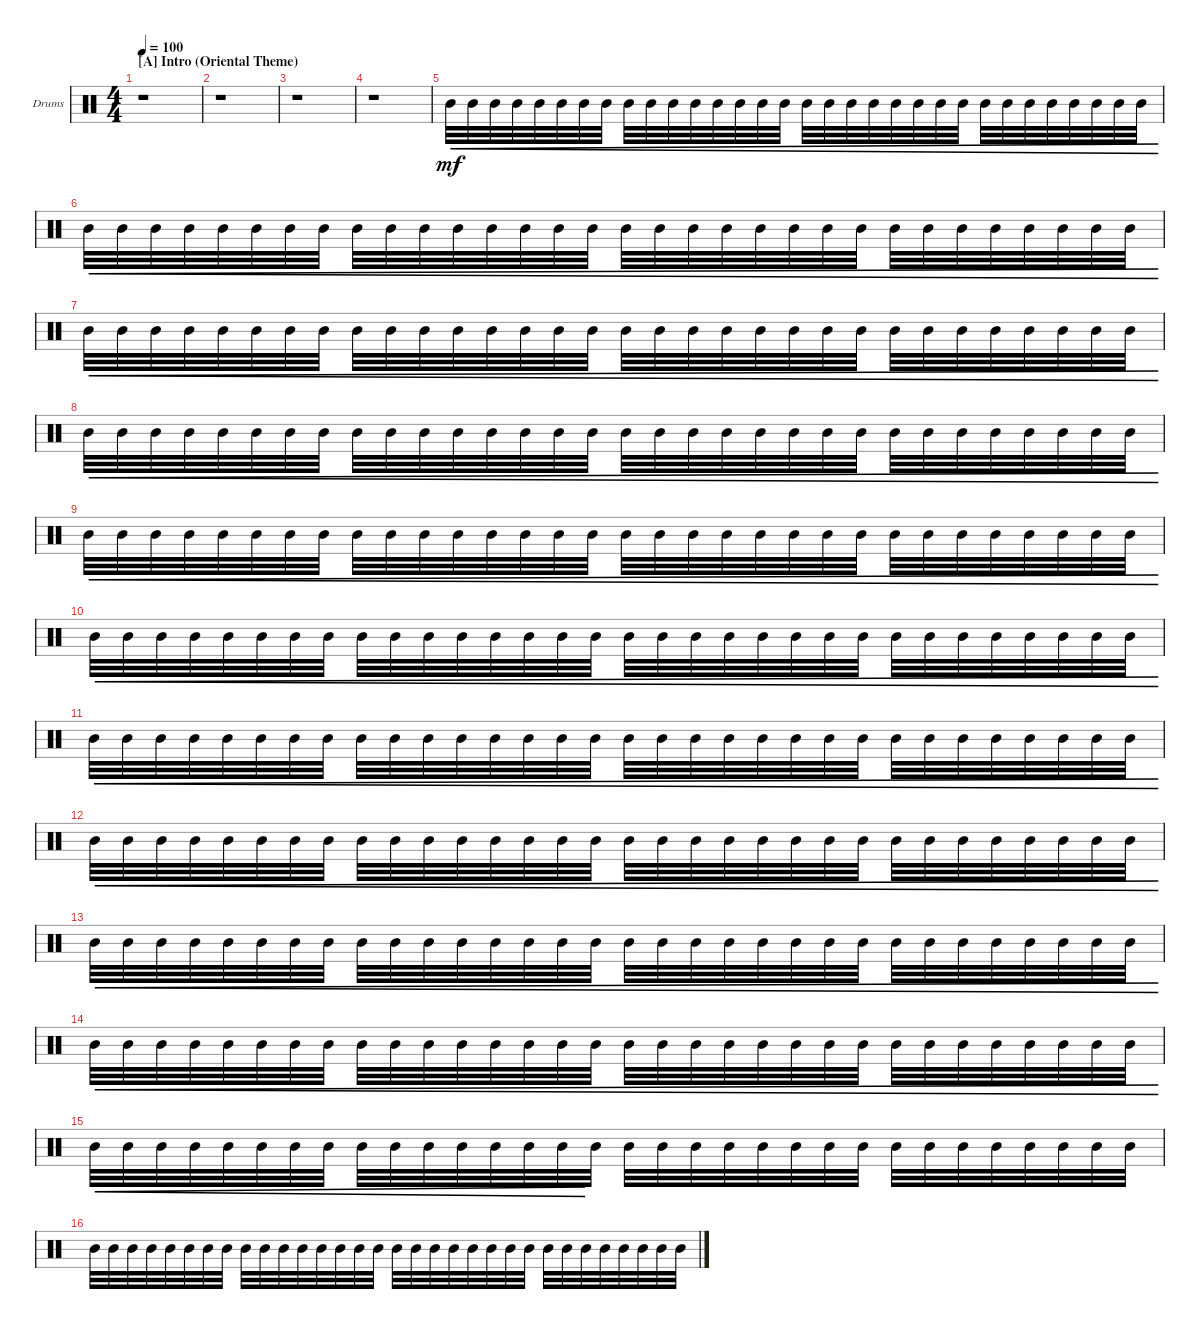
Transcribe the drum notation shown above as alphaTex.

\defaultSystemsLayout 4
\bracketExtendMode groupsimilarinstruments
\firstSystemTrackNameOrientation horizontal
\otherSystemsTrackNameOrientation horizontal
\track ("Drums" "Drums") {instrument percussion}
\staff {score}
\articulation defaults
\ts (4 4)
\section ("A" "Intro (Oriental Theme)")
\tempo 100
\clef neutral
\ks c
r.1{dy mf} |
r.1 |
r.1 |
r.1 |
"Mid Tom (hit)".32{cre} "Mid Tom (hit)".32{cre beam merge} "Mid Tom (hit)".32{cre} "Mid Tom (hit)".32{cre beam merge} "Mid Tom (hit)".32{cre} "Mid Tom (hit)".32{cre beam merge} "Mid Tom (hit)".32{cre} "Mid Tom (hit)".32{cre} "Mid Tom (hit)".32{cre} "Mid Tom (hit)".32{cre beam merge} "Mid Tom (hit)".32{cre} "Mid Tom (hit)".32{cre beam merge} "Mid Tom (hit)".32{cre} "Mid Tom (hit)".32{cre beam merge} "Mid Tom (hit)".32{cre} "Mid Tom (hit)".32{cre} "Mid Tom (hit)".32{cre} "Mid Tom (hit)".32{cre beam merge} "Mid Tom (hit)".32{cre} "Mid Tom (hit)".32{cre beam merge} "Mid Tom (hit)".32{cre} "Mid Tom (hit)".32{cre beam merge} "Mid Tom (hit)".32{cre} "Mid Tom (hit)".32{cre} "Mid Tom (hit)".32{cre} "Mid Tom (hit)".32{cre beam merge} "Mid Tom (hit)".32{cre} "Mid Tom (hit)".32{cre beam merge} "Mid Tom (hit)".32{cre} "Mid Tom (hit)".32{cre beam merge} "Mid Tom (hit)".32{cre} "Mid Tom (hit)".32{cre} |
"Mid Tom (hit)".32{cre} "Mid Tom (hit)".32{cre beam merge} "Mid Tom (hit)".32{cre} "Mid Tom (hit)".32{cre beam merge} "Mid Tom (hit)".32{cre} "Mid Tom (hit)".32{cre beam merge} "Mid Tom (hit)".32{cre} "Mid Tom (hit)".32{cre} "Mid Tom (hit)".32{cre} "Mid Tom (hit)".32{cre beam merge} "Mid Tom (hit)".32{cre} "Mid Tom (hit)".32{cre beam merge} "Mid Tom (hit)".32{cre} "Mid Tom (hit)".32{cre beam merge} "Mid Tom (hit)".32{cre} "Mid Tom (hit)".32{cre} "Mid Tom (hit)".32{cre} "Mid Tom (hit)".32{cre beam merge} "Mid Tom (hit)".32{cre} "Mid Tom (hit)".32{cre beam merge} "Mid Tom (hit)".32{cre} "Mid Tom (hit)".32{cre beam merge} "Mid Tom (hit)".32{cre} "Mid Tom (hit)".32{cre} "Mid Tom (hit)".32{cre} "Mid Tom (hit)".32{cre beam merge} "Mid Tom (hit)".32{cre} "Mid Tom (hit)".32{cre beam merge} "Mid Tom (hit)".32{cre} "Mid Tom (hit)".32{cre beam merge} "Mid Tom (hit)".32{cre} "Mid Tom (hit)".32{cre} |
"Mid Tom (hit)".32{cre} "Mid Tom (hit)".32{cre beam merge} "Mid Tom (hit)".32{cre} "Mid Tom (hit)".32{cre beam merge} "Mid Tom (hit)".32{cre} "Mid Tom (hit)".32{cre beam merge} "Mid Tom (hit)".32{cre} "Mid Tom (hit)".32{cre} "Mid Tom (hit)".32{cre} "Mid Tom (hit)".32{cre beam merge} "Mid Tom (hit)".32{cre} "Mid Tom (hit)".32{cre beam merge} "Mid Tom (hit)".32{cre} "Mid Tom (hit)".32{cre beam merge} "Mid Tom (hit)".32{cre} "Mid Tom (hit)".32{cre} "Mid Tom (hit)".32{cre} "Mid Tom (hit)".32{cre beam merge} "Mid Tom (hit)".32{cre} "Mid Tom (hit)".32{cre beam merge} "Mid Tom (hit)".32{cre} "Mid Tom (hit)".32{cre beam merge} "Mid Tom (hit)".32{cre} "Mid Tom (hit)".32{cre} "Mid Tom (hit)".32{cre} "Mid Tom (hit)".32{cre beam merge} "Mid Tom (hit)".32{cre} "Mid Tom (hit)".32{cre beam merge} "Mid Tom (hit)".32{cre} "Mid Tom (hit)".32{cre beam merge} "Mid Tom (hit)".32{cre} "Mid Tom (hit)".32{cre} |
"Mid Tom (hit)".32{cre} "Mid Tom (hit)".32{cre beam merge} "Mid Tom (hit)".32{cre} "Mid Tom (hit)".32{cre beam merge} "Mid Tom (hit)".32{cre} "Mid Tom (hit)".32{cre beam merge} "Mid Tom (hit)".32{cre} "Mid Tom (hit)".32{cre} "Mid Tom (hit)".32{cre} "Mid Tom (hit)".32{cre beam merge} "Mid Tom (hit)".32{cre} "Mid Tom (hit)".32{cre beam merge} "Mid Tom (hit)".32{cre} "Mid Tom (hit)".32{cre beam merge} "Mid Tom (hit)".32{cre} "Mid Tom (hit)".32{cre} "Mid Tom (hit)".32{cre} "Mid Tom (hit)".32{cre beam merge} "Mid Tom (hit)".32{cre} "Mid Tom (hit)".32{cre beam merge} "Mid Tom (hit)".32{cre} "Mid Tom (hit)".32{cre beam merge} "Mid Tom (hit)".32{cre} "Mid Tom (hit)".32{cre} "Mid Tom (hit)".32{cre} "Mid Tom (hit)".32{cre beam merge} "Mid Tom (hit)".32{cre} "Mid Tom (hit)".32{cre beam merge} "Mid Tom (hit)".32{cre} "Mid Tom (hit)".32{cre beam merge} "Mid Tom (hit)".32{cre} "Mid Tom (hit)".32{cre} |
"Mid Tom (hit)".32{cre} "Mid Tom (hit)".32{cre beam merge} "Mid Tom (hit)".32{cre} "Mid Tom (hit)".32{cre beam merge} "Mid Tom (hit)".32{cre} "Mid Tom (hit)".32{cre beam merge} "Mid Tom (hit)".32{cre} "Mid Tom (hit)".32{cre} "Mid Tom (hit)".32{cre} "Mid Tom (hit)".32{cre beam merge} "Mid Tom (hit)".32{cre} "Mid Tom (hit)".32{cre beam merge} "Mid Tom (hit)".32{cre} "Mid Tom (hit)".32{cre beam merge} "Mid Tom (hit)".32{cre} "Mid Tom (hit)".32{cre} "Mid Tom (hit)".32{cre} "Mid Tom (hit)".32{cre beam merge} "Mid Tom (hit)".32{cre} "Mid Tom (hit)".32{cre beam merge} "Mid Tom (hit)".32{cre} "Mid Tom (hit)".32{cre beam merge} "Mid Tom (hit)".32{cre} "Mid Tom (hit)".32{cre} "Mid Tom (hit)".32{cre} "Mid Tom (hit)".32{cre beam merge} "Mid Tom (hit)".32{cre} "Mid Tom (hit)".32{cre beam merge} "Mid Tom (hit)".32{cre} "Mid Tom (hit)".32{cre beam merge} "Mid Tom (hit)".32{cre} "Mid Tom (hit)".32{cre} |
"Mid Tom (hit)".32{cre} "Mid Tom (hit)".32{cre beam merge} "Mid Tom (hit)".32{cre} "Mid Tom (hit)".32{cre beam merge} "Mid Tom (hit)".32{cre} "Mid Tom (hit)".32{cre beam merge} "Mid Tom (hit)".32{cre} "Mid Tom (hit)".32{cre} "Mid Tom (hit)".32{cre} "Mid Tom (hit)".32{cre beam merge} "Mid Tom (hit)".32{cre} "Mid Tom (hit)".32{cre beam merge} "Mid Tom (hit)".32{cre} "Mid Tom (hit)".32{cre beam merge} "Mid Tom (hit)".32{cre} "Mid Tom (hit)".32{cre} "Mid Tom (hit)".32{cre} "Mid Tom (hit)".32{cre beam merge} "Mid Tom (hit)".32{cre} "Mid Tom (hit)".32{cre beam merge} "Mid Tom (hit)".32{cre} "Mid Tom (hit)".32{cre beam merge} "Mid Tom (hit)".32{cre} "Mid Tom (hit)".32{cre} "Mid Tom (hit)".32{cre} "Mid Tom (hit)".32{cre beam merge} "Mid Tom (hit)".32{cre} "Mid Tom (hit)".32{cre beam merge} "Mid Tom (hit)".32{cre} "Mid Tom (hit)".32{cre beam merge} "Mid Tom (hit)".32{cre} "Mid Tom (hit)".32{cre} |
"Mid Tom (hit)".32{cre} "Mid Tom (hit)".32{cre beam merge} "Mid Tom (hit)".32{cre} "Mid Tom (hit)".32{cre beam merge} "Mid Tom (hit)".32{cre} "Mid Tom (hit)".32{cre beam merge} "Mid Tom (hit)".32{cre} "Mid Tom (hit)".32{cre} "Mid Tom (hit)".32{cre} "Mid Tom (hit)".32{cre beam merge} "Mid Tom (hit)".32{cre} "Mid Tom (hit)".32{cre beam merge} "Mid Tom (hit)".32{cre} "Mid Tom (hit)".32{cre beam merge} "Mid Tom (hit)".32{cre} "Mid Tom (hit)".32{cre} "Mid Tom (hit)".32{cre beam merge} "Mid Tom (hit)".32{cre} "Mid Tom (hit)".32{cre beam merge} "Mid Tom (hit)".32{cre} "Mid Tom (hit)".32{cre beam merge} "Mid Tom (hit)".32{cre} "Mid Tom (hit)".32{cre} "Mid Tom (hit)".32{cre} "Mid Tom (hit)".32{cre beam merge} "Mid Tom (hit)".32{cre} "Mid Tom (hit)".32{cre beam merge} "Mid Tom (hit)".32{cre} "Mid Tom (hit)".32{cre beam merge} "Mid Tom (hit)".32{cre} "Mid Tom (hit)".32{cre} "Mid Tom (hit)".32{cre} |
"Mid Tom (hit)".32{cre} "Mid Tom (hit)".32{cre beam merge} "Mid Tom (hit)".32{cre} "Mid Tom (hit)".32{cre beam merge} "Mid Tom (hit)".32{cre} "Mid Tom (hit)".32{cre beam merge} "Mid Tom (hit)".32{cre} "Mid Tom (hit)".32{cre} "Mid Tom (hit)".32{cre} "Mid Tom (hit)".32{cre beam merge} "Mid Tom (hit)".32{cre} "Mid Tom (hit)".32{cre beam merge} "Mid Tom (hit)".32{cre} "Mid Tom (hit)".32{cre beam merge} "Mid Tom (hit)".32{cre} "Mid Tom (hit)".32{cre} "Mid Tom (hit)".32{cre} "Mid Tom (hit)".32{cre beam merge} "Mid Tom (hit)".32{cre} "Mid Tom (hit)".32{cre beam merge} "Mid Tom (hit)".32{cre} "Mid Tom (hit)".32{cre beam merge} "Mid Tom (hit)".32{cre} "Mid Tom (hit)".32{cre} "Mid Tom (hit)".32{cre} "Mid Tom (hit)".32{cre beam merge} "Mid Tom (hit)".32{cre} "Mid Tom (hit)".32{cre beam merge} "Mid Tom (hit)".32{cre} "Mid Tom (hit)".32{cre beam merge} "Mid Tom (hit)".32{cre} "Mid Tom (hit)".32{cre} |
"Mid Tom (hit)".32{cre} "Mid Tom (hit)".32{cre beam merge} "Mid Tom (hit)".32{cre} "Mid Tom (hit)".32{cre beam merge} "Mid Tom (hit)".32{cre} "Mid Tom (hit)".32{cre beam merge} "Mid Tom (hit)".32{cre} "Mid Tom (hit)".32{cre} "Mid Tom (hit)".32{cre} "Mid Tom (hit)".32{cre beam merge} "Mid Tom (hit)".32{cre} "Mid Tom (hit)".32{cre beam merge} "Mid Tom (hit)".32{cre} "Mid Tom (hit)".32{cre beam merge} "Mid Tom (hit)".32{cre} "Mid Tom (hit)".32{cre} "Mid Tom (hit)".32{cre} "Mid Tom (hit)".32{cre beam merge} "Mid Tom (hit)".32{cre} "Mid Tom (hit)".32{cre beam merge} "Mid Tom (hit)".32{cre} "Mid Tom (hit)".32{cre beam merge} "Mid Tom (hit)".32{cre} "Mid Tom (hit)".32{cre} "Mid Tom (hit)".32{cre} "Mid Tom (hit)".32{cre beam merge} "Mid Tom (hit)".32{cre} "Mid Tom (hit)".32{cre beam merge} "Mid Tom (hit)".32{cre} "Mid Tom (hit)".32{cre beam merge} "Mid Tom (hit)".32{cre} "Mid Tom (hit)".32{cre} |
"Mid Tom (hit)".32{cre} "Mid Tom (hit)".32{cre beam merge} "Mid Tom (hit)".32{cre} "Mid Tom (hit)".32{cre beam merge} "Mid Tom (hit)".32{cre} "Mid Tom (hit)".32{cre beam merge} "Mid Tom (hit)".32{cre} "Mid Tom (hit)".32{cre} "Mid Tom (hit)".32{cre} "Mid Tom (hit)".32{cre beam merge} "Mid Tom (hit)".32{cre} "Mid Tom (hit)".32{cre beam merge} "Mid Tom (hit)".32{cre} "Mid Tom (hit)".32{cre beam merge} "Mid Tom (hit)".32{cre} "Mid Tom (hit)".32{cre} "Mid Tom (hit)".32{cre} "Mid Tom (hit)".32{cre beam merge} "Mid Tom (hit)".32{cre} "Mid Tom (hit)".32{cre beam merge} "Mid Tom (hit)".32{cre} "Mid Tom (hit)".32{cre beam merge} "Mid Tom (hit)".32{cre} "Mid Tom (hit)".32{cre} "Mid Tom (hit)".32{cre} "Mid Tom (hit)".32{cre beam merge} "Mid Tom (hit)".32{cre} "Mid Tom (hit)".32{cre beam merge} "Mid Tom (hit)".32{cre} "Mid Tom (hit)".32{cre beam merge} "Mid Tom (hit)".32{cre} "Mid Tom (hit)".32{cre} |
"Mid Tom (hit)".32{cre} "Mid Tom (hit)".32{cre beam merge} "Mid Tom (hit)".32{cre} "Mid Tom (hit)".32{cre beam merge} "Mid Tom (hit)".32{cre} "Mid Tom (hit)".32{cre beam merge} "Mid Tom (hit)".32{cre} "Mid Tom (hit)".32{cre} "Mid Tom (hit)".32{cre} "Mid Tom (hit)".32{cre beam merge} "Mid Tom (hit)".32{cre} "Mid Tom (hit)".32{cre beam merge} "Mid Tom (hit)".32{cre} "Mid Tom (hit)".32{cre beam merge} "Mid Tom (hit)".32{cre} "Mid Tom (hit)".32 "Mid Tom (hit)".32 "Mid Tom (hit)".32{beam merge} "Mid Tom (hit)".32 "Mid Tom (hit)".32{beam merge} "Mid Tom (hit)".32 "Mid Tom (hit)".32{beam merge} "Mid Tom (hit)".32 "Mid Tom (hit)".32 "Mid Tom (hit)".32 "Mid Tom (hit)".32{beam merge} "Mid Tom (hit)".32 "Mid Tom (hit)".32{beam merge} "Mid Tom (hit)".32 "Mid Tom (hit)".32{beam merge} "Mid Tom (hit)".32 "Mid Tom (hit)".32 |
"Mid Tom (hit)".32 "Mid Tom (hit)".32{beam merge} "Mid Tom (hit)".32 "Mid Tom (hit)".32{beam merge} "Mid Tom (hit)".32 "Mid Tom (hit)".32{beam merge} "Mid Tom (hit)".32 "Mid Tom (hit)".32 "Mid Tom (hit)".32 "Mid Tom (hit)".32{beam merge} "Mid Tom (hit)".32 "Mid Tom (hit)".32{beam merge} "Mid Tom (hit)".32 "Mid Tom (hit)".32{beam merge} "Mid Tom (hit)".32 "Mid Tom (hit)".32 "Mid Tom (hit)".32 "Mid Tom (hit)".32{beam merge} "Mid Tom (hit)".32 "Mid Tom (hit)".32{beam merge} "Mid Tom (hit)".32 "Mid Tom (hit)".32{beam merge} "Mid Tom (hit)".32 "Mid Tom (hit)".32 "Mid Tom (hit)".32 "Mid Tom (hit)".32{beam merge} "Mid Tom (hit)".32 "Mid Tom (hit)".32{beam merge} "Mid Tom (hit)".32 "Mid Tom (hit)".32{beam merge} "Mid Tom (hit)".32 "Mid Tom (hit)".32
